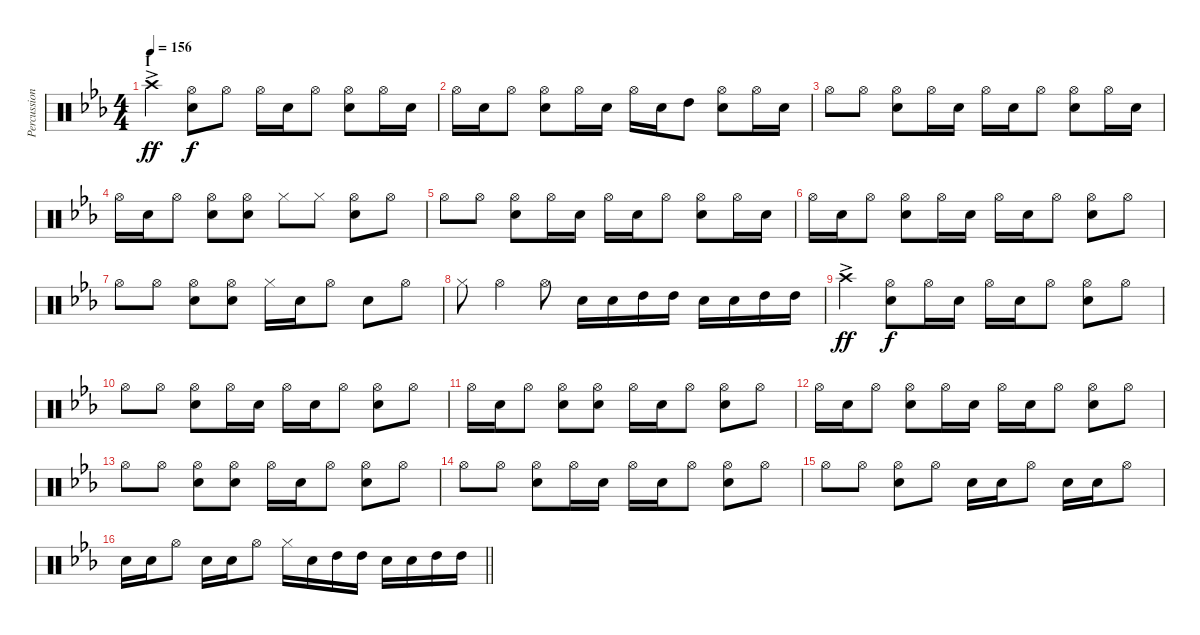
\track ("Percussion hand" "Percussion") {instrument percussion}
\staff {score}
\articulation defaults
\ts (4 4)
\section ("" "I")
\tempo 156
\clef neutral
\ks eb "Crash high (hit)"{ac}.4{dy ff}
("Hi-Hat (open)" "Snare (hit) 2").8{dy f} "Hi-Hat (open)".8 "Hi-Hat (open)".16 "Snare (hit) 2".16 "Hi-Hat (open)".8 ("Hi-Hat (open)" "Snare (hit) 2").8 "Hi-Hat (open)".16 "Snare (hit) 2".16 |
"Hi-Hat (open)".16 "Snare (hit) 2".16 "Hi-Hat (open)".8 ("Hi-Hat (open)" "Snare (hit) 2").8 "Hi-Hat (open)".16 "Snare (hit) 2".16 "Hi-Hat (open)".16 "Snare (hit) 2".16 "High Tom (hit)".8 ("Snare (hit) 2" "Hi-Hat (open)").8 "Hi-Hat (open)".16 "Snare (hit) 2".16 |
"Hi-Hat (open)".8 "Hi-Hat (open)".8 ("Hi-Hat (open)" "Snare (hit) 2").8 "Hi-Hat (open)".16 "Snare (hit) 2".16 "Hi-Hat (open)".16 "Snare (hit) 2".16 "Hi-Hat (open)".8 ("Hi-Hat (open)" "Snare (hit) 2").8 "Hi-Hat (open)".16 "Snare (hit) 2".16 |
"Hi-Hat (open)".16 "Snare (hit) 2".16 "Hi-Hat (open)".8 ("Hi-Hat (open)" "Snare (hit) 2").8 ("Hi-Hat (open)" "Snare (hit) 2").8 "Hi-Hat (closed)".8 "Hi-Hat (closed)".8 ("Hi-Hat (open)" "Snare (hit) 2").8 "Hi-Hat (open)".8 |
"Hi-Hat (open)".8 "Hi-Hat (open)".8 ("Hi-Hat (open)" "Snare (hit) 2").8 "Hi-Hat (open)".16 "Snare (hit) 2".16 "Hi-Hat (open)".16 "Snare (hit) 2".16 "Hi-Hat (open)".8 ("Hi-Hat (open)" "Snare (hit) 2").8 "Hi-Hat (open)".16 "Snare (hit) 2".16 |
"Hi-Hat (open)".16 "Snare (hit) 2".16 "Hi-Hat (open)".8 ("Hi-Hat (open)" "Snare (hit) 2").8 "Hi-Hat (open)".16 "Snare (hit) 2".16 "Hi-Hat (open)".16 "Snare (hit) 2".16 "Hi-Hat (open)".8 ("Hi-Hat (open)" "Snare (hit) 2").8 "Hi-Hat (open)".8 |
"Hi-Hat (open)".8 "Hi-Hat (open)".8 ("Hi-Hat (open)" "Snare (hit) 2").8 ("Hi-Hat (open)" "Snare (hit) 2").8 "Hi-Hat (closed)".16 "Snare (hit) 2".16 "Hi-Hat (open)".8 "Snare (hit) 2".8 "Hi-Hat (open)".8 |
"Hi-Hat (closed)".8 "Hi-Hat (open)".4 "Hi-Hat (open)".8 "Snare (hit) 2".16 "Snare (hit) 2".16 "High Tom (hit)".16 "High Tom (hit)".16 "Snare (hit) 2".16 "Snare (hit) 2".16 "High Tom (hit)".16 "High Tom (hit)".16 |
"Crash high (hit)"{ac}.4{dy ff} ("Hi-Hat (open)" "Snare (hit) 2").8{dy f} "Hi-Hat (open)".16 "Snare (hit) 2".16 "Hi-Hat (open)".16 "Snare (hit) 2".16 "Hi-Hat (open)".8 ("Hi-Hat (open)" "Snare (hit) 2").8 "Hi-Hat (open)".8 |
"Hi-Hat (open)".8 "Hi-Hat (open)".8 ("Hi-Hat (open)" "Snare (hit) 2").8 "Hi-Hat (open)".16 "Snare (hit) 2".16 "Hi-Hat (open)".16 "Snare (hit) 2".16 "Hi-Hat (open)".8 ("Hi-Hat (open)" "Snare (hit) 2").8 "Hi-Hat (open)".8 |
"Hi-Hat (open)".16 "Snare (hit) 2".16 "Hi-Hat (open)".8 ("Hi-Hat (open)" "Snare (hit) 2").8 ("Hi-Hat (open)" "Snare (hit) 2").8 "Hi-Hat (open)".16 "Snare (hit) 2".16 "Hi-Hat (open)".8 ("Hi-Hat (open)" "Snare (hit) 2").8 "Hi-Hat (open)".8 |
"Hi-Hat (open)".16 "Snare (hit) 2".16 "Hi-Hat (open)".8 ("Hi-Hat (open)" "Snare (hit) 2").8 "Hi-Hat (open)".16 "Snare (hit) 2".16 "Hi-Hat (open)".16 "Snare (hit) 2".16 "Hi-Hat (open)".8 ("Hi-Hat (open)" "Snare (hit) 2").8 "Hi-Hat (open)".8 |
"Hi-Hat (open)".8 "Hi-Hat (open)".8 ("Hi-Hat (open)" "Snare (hit) 2").8 ("Hi-Hat (open)" "Snare (hit) 2").8 "Hi-Hat (open)".16 "Snare (hit) 2".16 "Hi-Hat (open)".8 ("Hi-Hat (open)" "Snare (hit) 2").8 "Hi-Hat (open)".8 |
"Hi-Hat (open)".8 "Hi-Hat (open)".8 ("Hi-Hat (open)" "Snare (hit) 2").8 "Hi-Hat (open)".16 "Snare (hit) 2".16 "Hi-Hat (open)".16 "Snare (hit) 2".16 "Hi-Hat (open)".8 ("Hi-Hat (open)" "Snare (hit) 2").8 "Hi-Hat (open)".8 |
"Hi-Hat (open)".8 "Hi-Hat (open)".8 ("Hi-Hat (open)" "Snare (hit) 2").8 "Hi-Hat (open)".8 "Snare (hit) 2".16 "Snare (hit) 2".16 "Hi-Hat (open)".8 "Snare (hit) 2".16 "Snare (hit) 2".16 "Hi-Hat (open)".8 |
\barLineRight lightlight "Snare (hit) 2".16 "Snare (hit) 2".16 "Hi-Hat (open)".8 "Snare (hit) 2".16 "Snare (hit) 2".16 "Hi-Hat (open)".8 "Hi-Hat (closed)".16 "Snare (hit) 2".16 "High Tom (hit)".16 "High Tom (hit)".16 "Snare (hit) 2".16 "Snare (hit) 2".16 "High Tom (hit)".16 "High Tom (hit)".16
